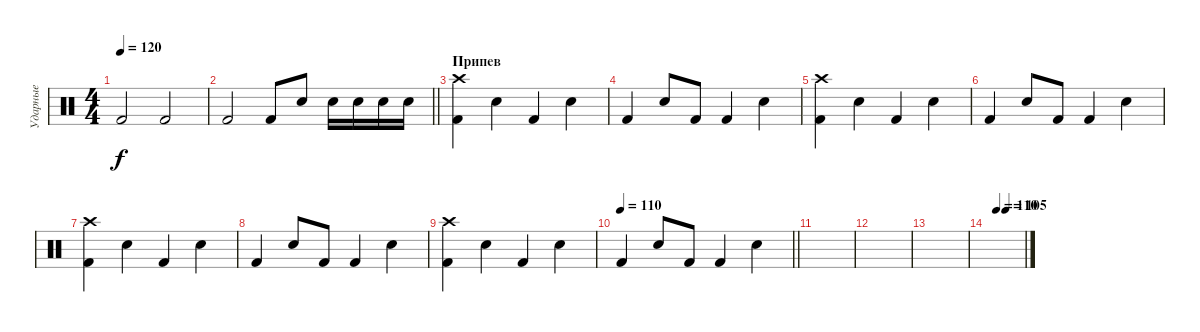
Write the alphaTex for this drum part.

\track ("Ударные" "Ударные") {instrument percussion}
\staff {score}
\articulation defaults
\ts (4 4)
\tempo 120
\clef neutral
\ks c "Kick (hit) 2".2{dy f} "Kick (hit) 2".2
|
\barLineRight lightlight "Kick (hit) 2".2 "Kick (hit) 2".8 "Electric Snare (hit)".8 "Electric Snare (hit)".16 "Electric Snare (hit)".16 "Electric Snare (hit)".16 "Electric Snare (hit)".16
|
\section ("" "Припев")
("Kick (hit) 2" "Crash high (hit)").4 "Electric Snare (hit)".4 "Kick (hit) 2".4 "Electric Snare (hit)".4 |
"Kick (hit) 2".4 "Electric Snare (hit)".8 "Kick (hit) 2".8 "Kick (hit) 2".4 "Electric Snare (hit)".4 |
("Kick (hit) 2" "Crash high (hit)").4 "Electric Snare (hit)".4 "Kick (hit) 2".4 "Electric Snare (hit)".4 |
"Kick (hit) 2".4 "Electric Snare (hit)".8 "Kick (hit) 2".8 "Kick (hit) 2".4 "Electric Snare (hit)".4 |
("Kick (hit) 2" "Crash high (hit)").4 "Electric Snare (hit)".4 "Kick (hit) 2".4 "Electric Snare (hit)".4 |
"Kick (hit) 2".4 "Electric Snare (hit)".8 "Kick (hit) 2".8 "Kick (hit) 2".4 "Electric Snare (hit)".4 |
("Kick (hit) 2" "Crash high (hit)").4 "Electric Snare (hit)".4 "Kick (hit) 2".4 "Electric Snare (hit)".4 |
\tempo 110
\barLineRight lightlight "Kick (hit) 2".4 "Electric Snare (hit)".8 "Kick (hit) 2".8 "Kick (hit) 2".4 "Electric Snare (hit)".4
|
|
|
|
\tempo (110 0.25)
\tempo (105 0.5)
